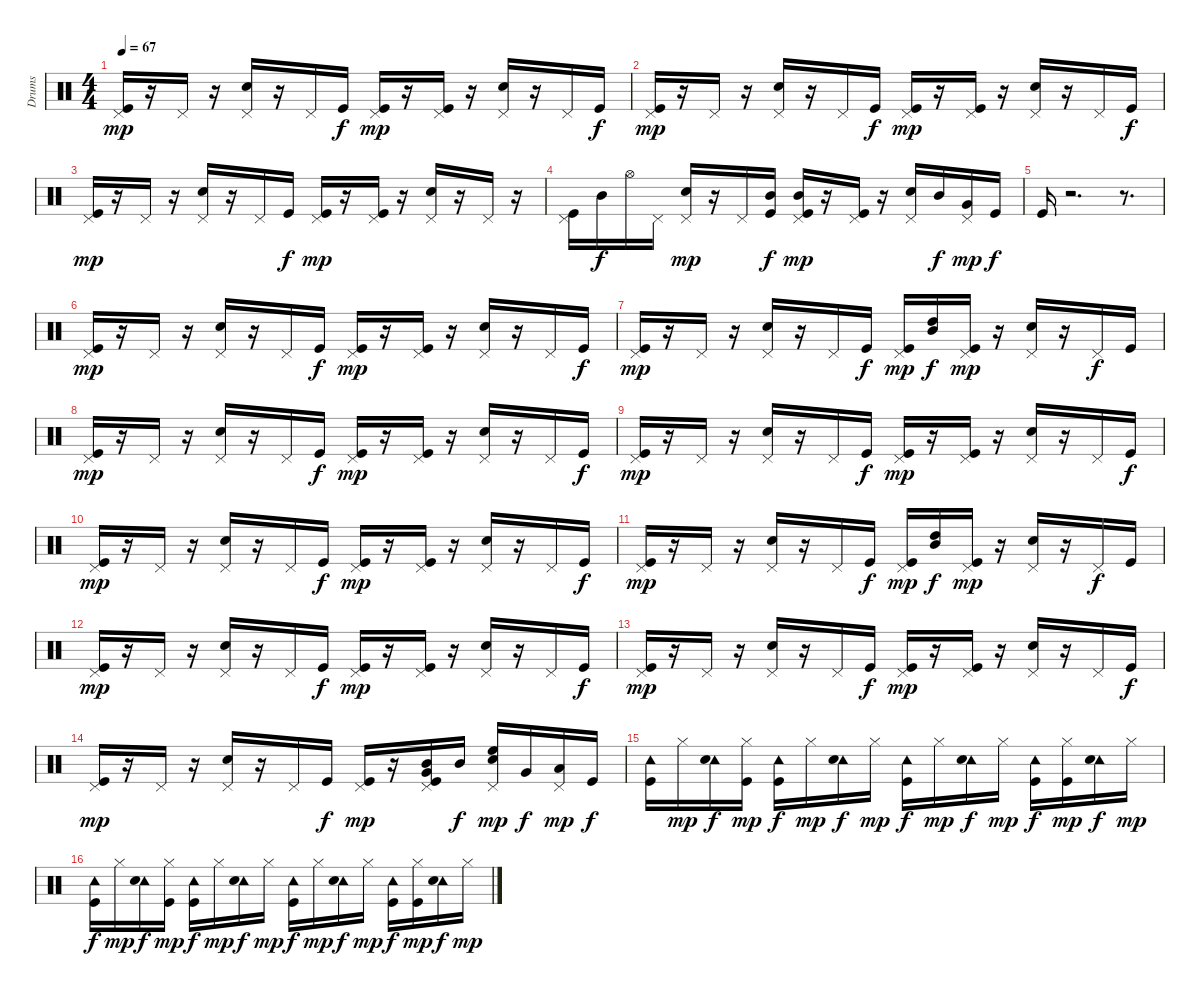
\track ("Drums" "Drums") {instrument percussion}
\staff {score}
\articulation defaults
\ts (4 4)
\tempo 67
\clef neutral
\ks c
("Kick (hit)" "Pedal Hi-Hat (hit)").16{dy mp} r.16 "Pedal Hi-Hat (hit)".16 r.16 ("Pedal Hi-Hat (hit)" "Snare (hit) 2").16 r.16 "Pedal Hi-Hat (hit)".16 "Kick (hit)".16{dy f} ("Kick (hit)" "Pedal Hi-Hat (hit)").16{dy mp} r.16 ("Kick (hit)" "Pedal Hi-Hat (hit)").16 r.16 ("Pedal Hi-Hat (hit)" "Snare (hit) 2").16 r.16 "Pedal Hi-Hat (hit)".16 "Kick (hit)".16{dy f} |
("Kick (hit)" "Pedal Hi-Hat (hit)").16{dy mp} r.16 "Pedal Hi-Hat (hit)".16 r.16 ("Pedal Hi-Hat (hit)" "Snare (hit) 2").16 r.16 "Pedal Hi-Hat (hit)".16 "Kick (hit)".16{dy f} ("Kick (hit)" "Pedal Hi-Hat (hit)").16{dy mp} r.16 ("Kick (hit)" "Pedal Hi-Hat (hit)").16 r.16 ("Pedal Hi-Hat (hit)" "Snare (hit) 2").16 r.16 "Pedal Hi-Hat (hit)".16 "Kick (hit)".16{dy f} |
("Kick (hit)" "Pedal Hi-Hat (hit)").16{dy mp} r.16 "Pedal Hi-Hat (hit)".16 r.16 ("Pedal Hi-Hat (hit)" "Snare (hit) 2").16 r.16 "Pedal Hi-Hat (hit)".16 "Kick (hit)".16{dy f} ("Kick (hit)" "Pedal Hi-Hat (hit)").16{dy mp} r.16 ("Kick (hit)" "Pedal Hi-Hat (hit)").16 r.16 ("Pedal Hi-Hat (hit)" "Snare (hit) 2").16 r.16 "Pedal Hi-Hat (hit)".16 r.16 |
("Kick (hit)" "Pedal Hi-Hat (hit)").16 "Mid Tom (hit)".16{dy f} "Hi-Hat (open)".16 "Pedal Hi-Hat (hit)".16 ("Pedal Hi-Hat (hit)" "Snare (hit) 2").16{dy mp} r.16 "Pedal Hi-Hat (hit)".16 ("Kick (hit)" "Mid Tom (hit)").16{dy f} ("Kick (hit)" "Pedal Hi-Hat (hit)" "Mid Tom (hit)").16{dy mp} r.16 ("Kick (hit)" "Pedal Hi-Hat (hit)").16 r.16 ("Pedal Hi-Hat (hit)" "Snare (hit) 2").16 "Mid Tom (hit)".16{dy f} ("Pedal Hi-Hat (hit)" "Very Low Tom (hit)").16{dy mp} "Kick (hit)".16{dy f} |
"Kick (hit)".16 r.2{d} r.8{d} |
("Kick (hit)" "Pedal Hi-Hat (hit)").16{dy mp} r.16 "Pedal Hi-Hat (hit)".16 r.16 ("Pedal Hi-Hat (hit)" "Snare (hit) 2").16 r.16 "Pedal Hi-Hat (hit)".16 "Kick (hit)".16{dy f} ("Kick (hit)" "Pedal Hi-Hat (hit)").16{dy mp} r.16 ("Kick (hit)" "Pedal Hi-Hat (hit)").16 r.16 ("Pedal Hi-Hat (hit)" "Snare (hit) 2").16 r.16 "Pedal Hi-Hat (hit)".16 "Kick (hit)".16{dy f} |
("Kick (hit)" "Pedal Hi-Hat (hit)").16{dy mp} r.16 "Pedal Hi-Hat (hit)".16 r.16 ("Pedal Hi-Hat (hit)" "Snare (hit) 2").16 r.16 "Pedal Hi-Hat (hit)".16 "Kick (hit)".16{dy f} ("Kick (hit)" "Pedal Hi-Hat (hit)").16{dy mp} ("Mid Tom (hit)" "High Tom (hit)").16{dy f} ("Kick (hit)" "Pedal Hi-Hat (hit)").16{dy mp} r.16 ("Pedal Hi-Hat (hit)" "Snare (hit) 2").16 r.16 "Pedal Hi-Hat (hit)".16{dy f} "Kick (hit)".16 |
("Pedal Hi-Hat (hit)" "Kick (hit)").16{dy mp} r.16 "Pedal Hi-Hat (hit)".16 r.16 ("Pedal Hi-Hat (hit)" "Snare (hit) 2").16 r.16 "Pedal Hi-Hat (hit)".16 "Kick (hit)".16{dy f} ("Kick (hit)" "Pedal Hi-Hat (hit)").16{dy mp} r.16 ("Kick (hit)" "Pedal Hi-Hat (hit)").16 r.16 ("Pedal Hi-Hat (hit)" "Snare (hit) 2").16 r.16 "Pedal Hi-Hat (hit)".16 "Kick (hit)".16{dy f} |
("Kick (hit)" "Pedal Hi-Hat (hit)").16{dy mp} r.16 "Pedal Hi-Hat (hit)".16 r.16 ("Pedal Hi-Hat (hit)" "Snare (hit) 2").16 r.16 "Pedal Hi-Hat (hit)".16 "Kick (hit)".16{dy f} ("Kick (hit)" "Pedal Hi-Hat (hit)").16{dy mp} r.16 ("Kick (hit)" "Pedal Hi-Hat (hit)").16 r.16 ("Pedal Hi-Hat (hit)" "Snare (hit) 2").16 r.16 "Pedal Hi-Hat (hit)".16 "Kick (hit)".16{dy f} |
("Kick (hit)" "Pedal Hi-Hat (hit)").16{dy mp} r.16 "Pedal Hi-Hat (hit)".16 r.16 ("Pedal Hi-Hat (hit)" "Snare (hit) 2").16 r.16 "Pedal Hi-Hat (hit)".16 "Kick (hit)".16{dy f} ("Kick (hit)" "Pedal Hi-Hat (hit)").16{dy mp} r.16 ("Kick (hit)" "Pedal Hi-Hat (hit)").16 r.16 ("Pedal Hi-Hat (hit)" "Snare (hit) 2").16 r.16 "Pedal Hi-Hat (hit)".16 "Kick (hit)".16{dy f} |
("Kick (hit)" "Pedal Hi-Hat (hit)").16{dy mp} r.16 "Pedal Hi-Hat (hit)".16 r.16 ("Pedal Hi-Hat (hit)" "Snare (hit) 2").16 r.16 "Pedal Hi-Hat (hit)".16 "Kick (hit)".16{dy f} ("Kick (hit)" "Pedal Hi-Hat (hit)").16{dy mp} ("Mid Tom (hit)" "High Tom (hit)").16{dy f} ("Kick (hit)" "Pedal Hi-Hat (hit)").16{dy mp} r.16 ("Pedal Hi-Hat (hit)" "Snare (hit) 2").16 r.16 "Pedal Hi-Hat (hit)".16{dy f} "Kick (hit)".16 |
("Pedal Hi-Hat (hit)" "Kick (hit)").16{dy mp} r.16 "Pedal Hi-Hat (hit)".16 r.16 ("Pedal Hi-Hat (hit)" "Snare (hit) 2").16 r.16 "Pedal Hi-Hat (hit)".16 "Kick (hit)".16{dy f} ("Kick (hit)" "Pedal Hi-Hat (hit)").16{dy mp} r.16 ("Kick (hit)" "Pedal Hi-Hat (hit)").16 r.16 ("Pedal Hi-Hat (hit)" "Snare (hit) 2").16 r.16 "Pedal Hi-Hat (hit)".16 "Kick (hit)".16{dy f} |
("Kick (hit)" "Pedal Hi-Hat (hit)").16{dy mp} r.16 "Pedal Hi-Hat (hit)".16 r.16 ("Pedal Hi-Hat (hit)" "Snare (hit) 2").16 r.16 "Pedal Hi-Hat (hit)".16 "Kick (hit)".16{dy f} ("Kick (hit)" "Pedal Hi-Hat (hit)").16{dy mp} r.16 ("Kick (hit)" "Pedal Hi-Hat (hit)").16 r.16 ("Pedal Hi-Hat (hit)" "Snare (hit) 2").16 r.16 "Pedal Hi-Hat (hit)".16 "Kick (hit)".16{dy f} |
("Pedal Hi-Hat (hit)" "Kick (hit)").16{dy mp} r.16 "Pedal Hi-Hat (hit)".16 r.16 ("Pedal Hi-Hat (hit)" "Snare (hit) 2").16 r.16 "Pedal Hi-Hat (hit)".16 "Kick (hit)".16{dy f} ("Kick (hit)" "Pedal Hi-Hat (hit)").16{dy mp} r.16 ("Very Low Tom (hit)" "Kick (hit)" "Pedal Hi-Hat (hit)" "Mid Tom (hit)").16 "Mid Tom (hit)".16{dy f} ("Pedal Hi-Hat (hit)" "High Floor Tom (hit)" "Snare (hit) 2").16{dy mp} "Very Low Tom (hit)".16{dy f} ("Pedal Hi-Hat (hit)" "Low Floor Tom (hit)").16{dy mp} "Kick (hit)".16{dy f} |
("Kick (hit)" "Tambourine (hit)").16 "Hi-Hat (closed)".16{dy mp} ("Tambourine (hit)" "Snare (hit) 2").16{dy f} ("Kick (hit)" "Hi-Hat (closed)").16{dy mp} ("Kick (hit)" "Tambourine (hit)").16{dy f} "Hi-Hat (closed)".16{dy mp} ("Tambourine (hit)" "Snare (hit) 2").16{dy f} "Hi-Hat (closed)".16{dy mp} ("Kick (hit)" "Tambourine (hit)").16{dy f} "Hi-Hat (closed)".16{dy mp} ("Tambourine (hit)" "Snare (hit) 2").16{dy f} "Hi-Hat (closed)".16{dy mp} ("Kick (hit)" "Tambourine (hit)").16{dy f} ("Kick (hit)" "Hi-Hat (closed)").16{dy mp} ("Tambourine (hit)" "Snare (hit) 2").16{dy f} "Hi-Hat (closed)".16{dy mp} |
("Kick (hit)" "Tambourine (hit)").16{dy f} "Hi-Hat (closed)".16{dy mp} ("Tambourine (hit)" "Snare (hit) 2").16{dy f} ("Kick (hit)" "Hi-Hat (closed)").16{dy mp} ("Kick (hit)" "Tambourine (hit)").16{dy f} "Hi-Hat (closed)".16{dy mp} ("Tambourine (hit)" "Snare (hit) 2").16{dy f} "Hi-Hat (closed)".16{dy mp} ("Kick (hit)" "Tambourine (hit)").16{dy f} "Hi-Hat (closed)".16{dy mp} ("Tambourine (hit)" "Snare (hit) 2").16{dy f} "Hi-Hat (closed)".16{dy mp} ("Kick (hit)" "Tambourine (hit)").16{dy f} ("Kick (hit)" "Hi-Hat (closed)").16{dy mp} ("Tambourine (hit)" "Snare (hit) 2").16{dy f} "Hi-Hat (closed)".16{dy mp}
